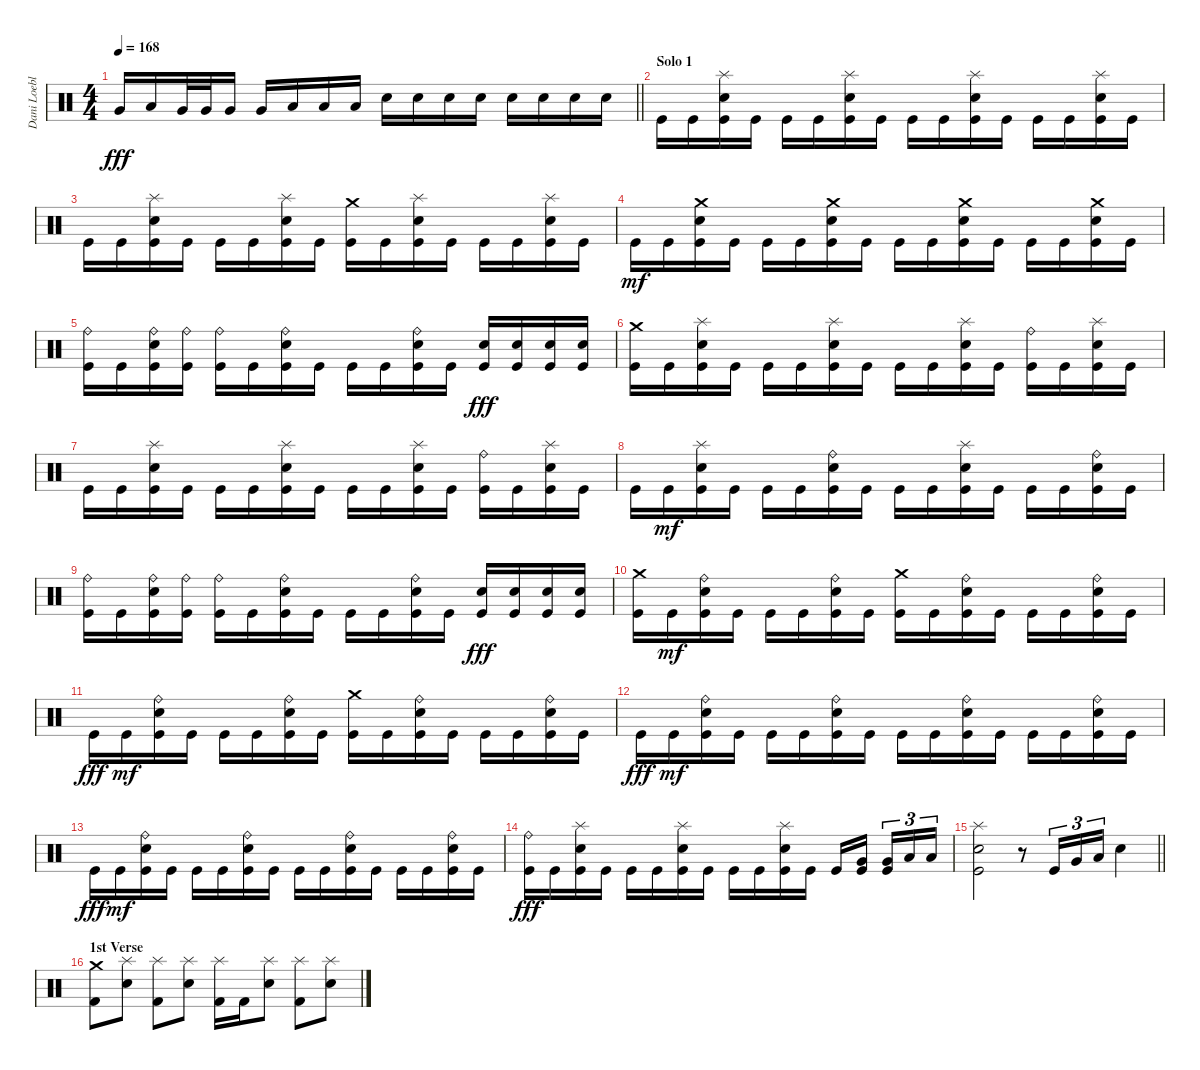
\track ("Dani Loeble" "Dani Loebl") {instrument percussion}
\staff {score}
\articulation defaults
\ts (4 4)
\tempo 168
\clef neutral
\barLineRight lightlight
\ks c "Very Low Tom (hit)".16{dy fff} "Low Floor Tom (hit)".16 "Very Low Tom (hit)".32 "Very Low Tom (hit)".32 "Very Low Tom (hit)".16 "Very Low Tom (hit)".16 "Low Floor Tom (hit)".16 "Low Floor Tom (hit)".16 "Low Floor Tom (hit)".16 "Electric Snare (hit)".16 "Electric Snare (hit)".16 "Electric Snare (hit)".16 "Electric Snare (hit)".16 "Electric Snare (hit)".16 "Electric Snare (hit)".16 "Electric Snare (hit)".16 "Electric Snare (hit)".16
|
\section ("" "Solo 1")
"Kick (hit)".16 "Kick (hit)".16 ("Splash (hit)" "Electric Snare (hit)" "Kick (hit)").16 "Kick (hit)".16 "Kick (hit)".16 "Kick (hit)".16 ("Splash (hit)" "Electric Snare (hit)" "Kick (hit)").16 "Kick (hit)".16 "Kick (hit)".16 "Kick (hit)".16 ("Splash (hit)" "Electric Snare (hit)" "Kick (hit)").16 "Kick (hit)".16 "Kick (hit)".16 "Kick (hit)".16 ("Splash (hit)" "Electric Snare (hit)" "Kick (hit)").16 "Kick (hit)".16 |
"Kick (hit)".16 "Kick (hit)".16 ("Splash (hit)" "Electric Snare (hit)" "Kick (hit)").16 "Kick (hit)".16 "Kick (hit)".16 "Kick (hit)".16 ("Splash (hit)" "Electric Snare (hit)" "Kick (hit)").16 "Kick (hit)".16 ("Crash medium (hit)" "Kick (hit)").16 "Kick (hit)".16 ("Splash (hit)" "Electric Snare (hit)" "Kick (hit)").16 "Kick (hit)".16 "Kick (hit)".16 "Kick (hit)".16 ("Splash (hit)" "Electric Snare (hit)" "Kick (hit)").16 "Kick (hit)".16 |
"Kick (hit)".16{dy mf} "Kick (hit)".16 ("Crash medium (hit)" "Electric Snare (hit)" "Kick (hit)").16 "Kick (hit)".16 "Kick (hit)".16 "Kick (hit)".16 ("Crash medium (hit)" "Electric Snare (hit)" "Kick (hit)").16 "Kick (hit)".16 "Kick (hit)".16 "Kick (hit)".16 ("Crash medium (hit)" "Electric Snare (hit)" "Kick (hit)").16 "Kick (hit)".16 "Kick (hit)".16 "Kick (hit)".16 ("Crash medium (hit)" "Electric Snare (hit)" "Kick (hit)").16 "Kick (hit)".16 |
("Ride (bell)" "Kick (hit)").16 "Kick (hit)".16 ("Ride (bell)" "Electric Snare (hit)" "Kick (hit)").16 ("Ride (bell)" "Kick (hit)").16 ("Ride (bell)" "Kick (hit)").16 "Kick (hit)".16 ("Ride (bell)" "Electric Snare (hit)" "Kick (hit)").16 "Kick (hit)".16 "Kick (hit)".16 "Kick (hit)".16 ("Ride (bell)" "Electric Snare (hit)" "Kick (hit)").16 "Kick (hit)".16 ("Electric Snare (hit)" "Kick (hit)").16{dy fff} ("Electric Snare (hit)" "Kick (hit)").16 ("Electric Snare (hit)" "Kick (hit)").16 ("Electric Snare (hit)" "Kick (hit)").16 |
("Crash medium (hit)" "Kick (hit)").16 "Kick (hit)".16 ("Splash (hit)" "Electric Snare (hit)" "Kick (hit)").16 "Kick (hit)".16 "Kick (hit)".16 "Kick (hit)".16 ("Splash (hit)" "Electric Snare (hit)" "Kick (hit)").16 "Kick (hit)".16 "Kick (hit)".16 "Kick (hit)".16 ("Splash (hit)" "Electric Snare (hit)" "Kick (hit)").16 "Kick (hit)".16 ("Ride (bell)" "Kick (hit)").16 "Kick (hit)".16 ("Splash (hit)" "Electric Snare (hit)" "Kick (hit)").16 "Kick (hit)".16 |
"Kick (hit)".16 "Kick (hit)".16 ("Splash (hit)" "Electric Snare (hit)" "Kick (hit)").16 "Kick (hit)".16 "Kick (hit)".16 "Kick (hit)".16 ("Splash (hit)" "Electric Snare (hit)" "Kick (hit)").16 "Kick (hit)".16 "Kick (hit)".16 "Kick (hit)".16 ("Splash (hit)" "Electric Snare (hit)" "Kick (hit)").16 "Kick (hit)".16 ("Ride (bell)" "Kick (hit)").16 "Kick (hit)".16 ("Splash (hit)" "Electric Snare (hit)" "Kick (hit)").16 "Kick (hit)".16 |
"Kick (hit)".16 "Kick (hit)".16{dy mf} ("Splash (hit)" "Electric Snare (hit)" "Kick (hit)").16 "Kick (hit)".16 "Kick (hit)".16 "Kick (hit)".16 ("Ride (bell)" "Electric Snare (hit)" "Kick (hit)").16 "Kick (hit)".16 "Kick (hit)".16 "Kick (hit)".16 ("Splash (hit)" "Electric Snare (hit)" "Kick (hit)").16 "Kick (hit)".16 "Kick (hit)".16 "Kick (hit)".16 ("Ride (bell)" "Electric Snare (hit)" "Kick (hit)").16 "Kick (hit)".16 |
("Ride (bell)" "Kick (hit)").16 "Kick (hit)".16 ("Ride (bell)" "Electric Snare (hit)" "Kick (hit)").16 ("Ride (bell)" "Kick (hit)").16 ("Ride (bell)" "Kick (hit)").16 "Kick (hit)".16 ("Ride (bell)" "Electric Snare (hit)" "Kick (hit)").16 "Kick (hit)".16 "Kick (hit)".16 "Kick (hit)".16 ("Ride (bell)" "Electric Snare (hit)" "Kick (hit)").16 "Kick (hit)".16 ("Electric Snare (hit)" "Kick (hit)").16{dy fff} ("Electric Snare (hit)" "Kick (hit)").16 ("Electric Snare (hit)" "Kick (hit)").16 ("Electric Snare (hit)" "Kick (hit)").16 |
("Crash medium (hit)" "Kick (hit)").16 "Kick (hit)".16{dy mf} ("Ride (bell)" "Electric Snare (hit)" "Kick (hit)").16 "Kick (hit)".16 "Kick (hit)".16 "Kick (hit)".16 ("Ride (bell)" "Electric Snare (hit)" "Kick (hit)").16 "Kick (hit)".16 ("Crash medium (hit)" "Kick (hit)").16 "Kick (hit)".16 ("Ride (bell)" "Electric Snare (hit)" "Kick (hit)").16 "Kick (hit)".16 "Kick (hit)".16 "Kick (hit)".16 ("Ride (bell)" "Electric Snare (hit)" "Kick (hit)").16 "Kick (hit)".16 |
"Kick (hit)".16{dy fff} "Kick (hit)".16{dy mf} ("Ride (bell)" "Electric Snare (hit)" "Kick (hit)").16 "Kick (hit)".16 "Kick (hit)".16 "Kick (hit)".16 ("Ride (bell)" "Electric Snare (hit)" "Kick (hit)").16 "Kick (hit)".16 ("Crash medium (hit)" "Kick (hit)").16 "Kick (hit)".16 ("Ride (bell)" "Electric Snare (hit)" "Kick (hit)").16 "Kick (hit)".16 "Kick (hit)".16 "Kick (hit)".16 ("Ride (bell)" "Electric Snare (hit)" "Kick (hit)").16 "Kick (hit)".16 |
"Kick (hit)".16{dy fff} "Kick (hit)".16{dy mf} ("Ride (bell)" "Electric Snare (hit)" "Kick (hit)").16 "Kick (hit)".16 "Kick (hit)".16 "Kick (hit)".16 ("Ride (bell)" "Electric Snare (hit)" "Kick (hit)").16 "Kick (hit)".16 "Kick (hit)".16 "Kick (hit)".16 ("Ride (bell)" "Electric Snare (hit)" "Kick (hit)").16 "Kick (hit)".16 "Kick (hit)".16 "Kick (hit)".16 ("Ride (bell)" "Electric Snare (hit)" "Kick (hit)").16 "Kick (hit)".16 |
"Kick (hit)".16{dy fff} "Kick (hit)".16{dy mf} ("Ride (bell)" "Electric Snare (hit)" "Kick (hit)").16 "Kick (hit)".16 "Kick (hit)".16 "Kick (hit)".16 ("Ride (bell)" "Electric Snare (hit)" "Kick (hit)").16 "Kick (hit)".16 "Kick (hit)".16 "Kick (hit)".16 ("Ride (bell)" "Electric Snare (hit)" "Kick (hit)").16 "Kick (hit)".16 "Kick (hit)".16 "Kick (hit)".16 ("Ride (bell)" "Electric Snare (hit)" "Kick (hit)").16 "Kick (hit)".16 |
("Ride (bell)" "Kick (hit)").16{dy fff} "Kick (hit)".16 ("Splash (hit)" "Electric Snare (hit)" "Kick (hit)").16 "Kick (hit)".16 "Kick (hit)".16 "Kick (hit)".16 ("Splash (hit)" "Electric Snare (hit)" "Kick (hit)").16 "Kick (hit)".16 "Kick (hit)".16 "Kick (hit)".16 ("Splash (hit)" "Electric Snare (hit)" "Kick (hit)").16 "Kick (hit)".16 "Kick (hit)".16 ("Very Low Tom (hit)" "Kick (hit)").16{beam splitsecondary} ("Very Low Tom (hit)" "Kick (hit)").16{tu (3 2)} "Low Floor Tom (hit)".16{tu (3 2)} "Low Floor Tom (hit)".16{tu (3 2)} |
\barLineRight lightlight
("Splash (hit)" "Electric Snare (hit)" "Kick (hit)").2 r.8 "Kick (hit)".16{tu (3 2)} "Very Low Tom (hit)".16{tu (3 2)} "Low Floor Tom (hit)".16{tu (3 2)} "Electric Snare (hit)".4 |
\section ("" "1st Verse")
("Crash medium (hit)" "Kick (hit) 2").8 ("Splash (hit)" "Electric Snare (hit)").8 ("Splash (hit)" "Kick (hit) 2").8 ("Splash (hit)" "Electric Snare (hit)").8 ("Splash (hit)" "Kick (hit) 2").16 "Kick (hit) 2".16 ("Splash (hit)" "Electric Snare (hit)").8 ("Splash (hit)" "Kick (hit) 2").8 ("Splash (hit)" "Electric Snare (hit)").8
